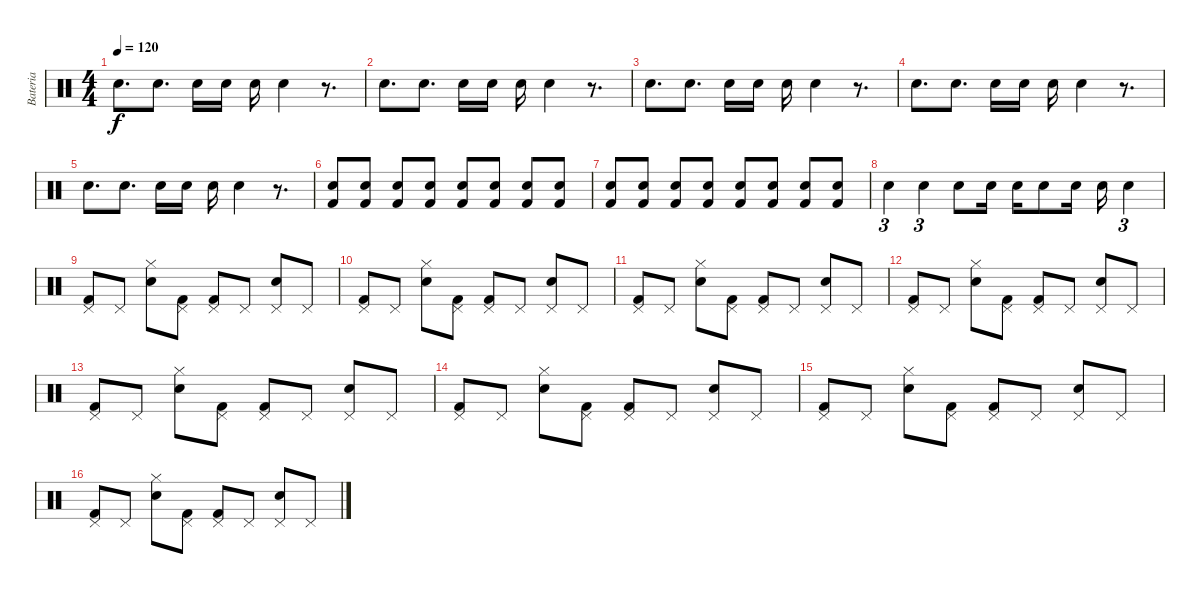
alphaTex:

\track ("Bateria" "Bateria") {instrument percussion}
\staff {score}
\articulation defaults
\ts (4 4)
\tempo 120
\clef neutral
\ks c "Electric Snare (hit)".8{d dy f} "Electric Snare (hit)".8{d} "Electric Snare (hit)".16 "Electric Snare (hit)".16 "Electric Snare (hit)".16 "Electric Snare (hit)".4
r.8{d} |
"Electric Snare (hit)".8{d} "Electric Snare (hit)".8{d} "Electric Snare (hit)".16 "Electric Snare (hit)".16 "Electric Snare (hit)".16 "Electric Snare (hit)".4 r.8{d} |
"Electric Snare (hit)".8{d} "Electric Snare (hit)".8{d} "Electric Snare (hit)".16 "Electric Snare (hit)".16 "Electric Snare (hit)".16 "Electric Snare (hit)".4 r.8{d} |
"Electric Snare (hit)".8{d} "Electric Snare (hit)".8{d} "Electric Snare (hit)".16 "Electric Snare (hit)".16 "Electric Snare (hit)".16 "Electric Snare (hit)".4 r.8{d} |
"Electric Snare (hit)".8{d} "Electric Snare (hit)".8{d} "Electric Snare (hit)".16 "Electric Snare (hit)".16 "Electric Snare (hit)".16 "Electric Snare (hit)".4 r.8{d} |
("Electric Snare (hit)" "Kick (hit) 2").8 ("Electric Snare (hit)" "Kick (hit) 2").8 ("Electric Snare (hit)" "Kick (hit) 2").8 ("Electric Snare (hit)" "Kick (hit) 2").8 ("Electric Snare (hit)" "Kick (hit) 2").8 ("Electric Snare (hit)" "Kick (hit) 2").8 ("Electric Snare (hit)" "Kick (hit) 2").8 ("Electric Snare (hit)" "Kick (hit) 2").8 |
("Electric Snare (hit)" "Kick (hit) 2").8 ("Electric Snare (hit)" "Kick (hit) 2").8 ("Electric Snare (hit)" "Kick (hit) 2").8 ("Electric Snare (hit)" "Kick (hit) 2").8 ("Electric Snare (hit)" "Kick (hit) 2").8 ("Electric Snare (hit)" "Kick (hit) 2").8 ("Electric Snare (hit)" "Kick (hit) 2").8 ("Electric Snare (hit)" "Kick (hit) 2").8 |
"Electric Snare (hit)".4{tu (3 2)} "Electric Snare (hit)".4{tu (3 2)} "Electric Snare (hit)".8 "Electric Snare (hit)".16 "Electric Snare (hit)".16 "Electric Snare (hit)".8 "Electric Snare (hit)".16 "Electric Snare (hit)".16 "Electric Snare (hit)".4{tu (3 2)} |
("Pedal Hi-Hat (hit)" "Kick (hit) 2").8 "Pedal Hi-Hat (hit)".8 ("Hi-Hat (closed)" "Electric Snare (hit)").8 ("Pedal Hi-Hat (hit)" "Kick (hit) 2").8 ("Pedal Hi-Hat (hit)" "Kick (hit) 2").8 "Pedal Hi-Hat (hit)".8 ("Electric Snare (hit)" "Pedal Hi-Hat (hit)").8 "Pedal Hi-Hat (hit)".8 |
("Pedal Hi-Hat (hit)" "Kick (hit) 2").8 "Pedal Hi-Hat (hit)".8 ("Hi-Hat (closed)" "Electric Snare (hit)").8 ("Pedal Hi-Hat (hit)" "Kick (hit) 2").8 ("Pedal Hi-Hat (hit)" "Kick (hit) 2").8 "Pedal Hi-Hat (hit)".8 ("Electric Snare (hit)" "Pedal Hi-Hat (hit)").8 "Pedal Hi-Hat (hit)".8 |
("Pedal Hi-Hat (hit)" "Kick (hit) 2").8 "Pedal Hi-Hat (hit)".8 ("Hi-Hat (closed)" "Electric Snare (hit)").8 ("Pedal Hi-Hat (hit)" "Kick (hit) 2").8 ("Pedal Hi-Hat (hit)" "Kick (hit) 2").8 "Pedal Hi-Hat (hit)".8 ("Electric Snare (hit)" "Pedal Hi-Hat (hit)").8 "Pedal Hi-Hat (hit)".8 |
("Pedal Hi-Hat (hit)" "Kick (hit) 2").8 "Pedal Hi-Hat (hit)".8 ("Hi-Hat (closed)" "Electric Snare (hit)").8 ("Pedal Hi-Hat (hit)" "Kick (hit) 2").8 ("Pedal Hi-Hat (hit)" "Kick (hit) 2").8 "Pedal Hi-Hat (hit)".8 ("Electric Snare (hit)" "Pedal Hi-Hat (hit)").8 "Pedal Hi-Hat (hit)".8 |
("Pedal Hi-Hat (hit)" "Kick (hit) 2").8 "Pedal Hi-Hat (hit)".8 ("Hi-Hat (closed)" "Electric Snare (hit)").8 ("Pedal Hi-Hat (hit)" "Kick (hit) 2").8 ("Pedal Hi-Hat (hit)" "Kick (hit) 2").8 "Pedal Hi-Hat (hit)".8 ("Electric Snare (hit)" "Pedal Hi-Hat (hit)").8 "Pedal Hi-Hat (hit)".8 |
("Pedal Hi-Hat (hit)" "Kick (hit) 2").8 "Pedal Hi-Hat (hit)".8 ("Hi-Hat (closed)" "Electric Snare (hit)").8 ("Pedal Hi-Hat (hit)" "Kick (hit) 2").8 ("Pedal Hi-Hat (hit)" "Kick (hit) 2").8 "Pedal Hi-Hat (hit)".8 ("Electric Snare (hit)" "Pedal Hi-Hat (hit)").8 "Pedal Hi-Hat (hit)".8 |
("Pedal Hi-Hat (hit)" "Kick (hit) 2").8 "Pedal Hi-Hat (hit)".8 ("Hi-Hat (closed)" "Electric Snare (hit)").8 ("Pedal Hi-Hat (hit)" "Kick (hit) 2").8 ("Pedal Hi-Hat (hit)" "Kick (hit) 2").8 "Pedal Hi-Hat (hit)".8 ("Electric Snare (hit)" "Pedal Hi-Hat (hit)").8 "Pedal Hi-Hat (hit)".8 |
("Pedal Hi-Hat (hit)" "Kick (hit) 2").8 "Pedal Hi-Hat (hit)".8 ("Hi-Hat (closed)" "Electric Snare (hit)").8 ("Pedal Hi-Hat (hit)" "Kick (hit) 2").8 ("Pedal Hi-Hat (hit)" "Kick (hit) 2").8 "Pedal Hi-Hat (hit)".8 ("Electric Snare (hit)" "Pedal Hi-Hat (hit)").8 "Pedal Hi-Hat (hit)".8
